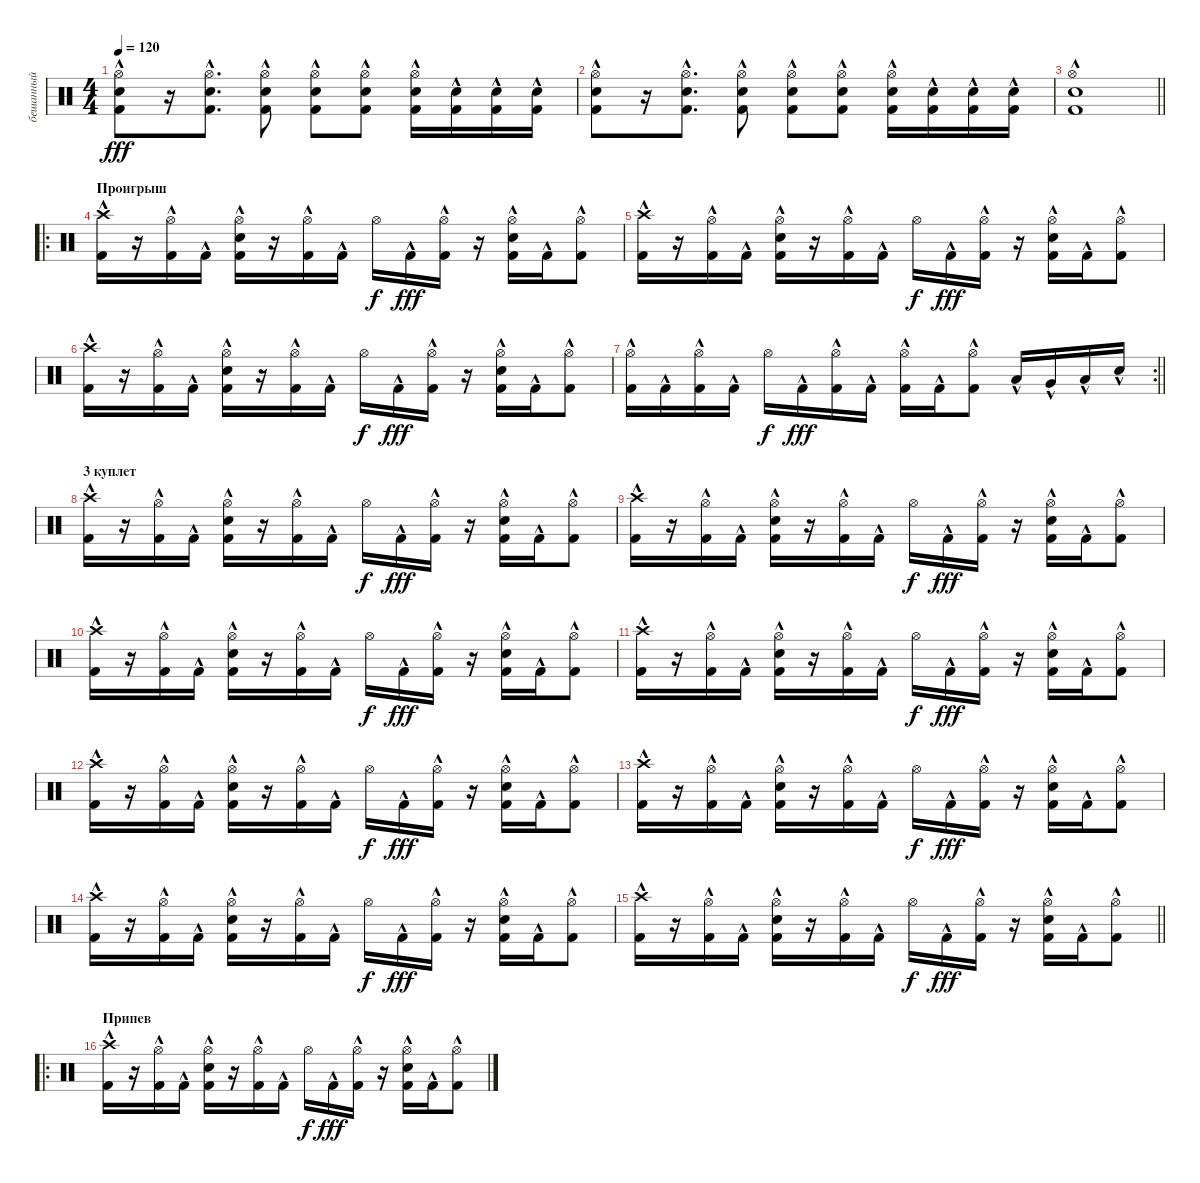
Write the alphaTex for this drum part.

\track ("бешанный" "бешанный") {instrument percussion}
\staff {score}
\articulation defaults
\ts (4 4)
\tempo 120
\clef neutral
\ks c
("Kick (hit) 2"{hac} "Snare (hit) 2"{hac} "Hi-Hat (open)").8{dy fff} r.16 ("Kick (hit) 2"{hac} "Snare (hit) 2"{hac} "Hi-Hat (open)").8{d} ("Kick (hit) 2"{hac} "Snare (hit) 2"{hac} "Hi-Hat (open)").8 ("Kick (hit) 2"{hac} "Snare (hit) 2"{hac} "Hi-Hat (open)").8 ("Kick (hit) 2"{hac} "Snare (hit) 2"{hac} "Hi-Hat (open)").8 ("Kick (hit) 2"{hac} "Snare (hit) 2"{hac} "Hi-Hat (open)").16 ("Kick (hit) 2"{hac} "Snare (hit) 2"{hac}).16 ("Kick (hit) 2"{hac} "Snare (hit) 2"{hac}).16 ("Kick (hit) 2"{hac} "Snare (hit) 2"{hac}).16 |
("Kick (hit) 2"{hac} "Snare (hit) 2"{hac} "Hi-Hat (open)").8 r.16 ("Kick (hit) 2"{hac} "Snare (hit) 2"{hac} "Hi-Hat (open)").8{d} ("Kick (hit) 2"{hac} "Snare (hit) 2"{hac} "Hi-Hat (open)").8 ("Kick (hit) 2"{hac} "Snare (hit) 2"{hac} "Hi-Hat (open)").8 ("Kick (hit) 2"{hac} "Snare (hit) 2"{hac} "Hi-Hat (open)").8 ("Kick (hit) 2"{hac} "Snare (hit) 2"{hac} "Hi-Hat (open)").16 ("Kick (hit) 2"{hac} "Snare (hit) 2"{hac}).16 ("Kick (hit) 2"{hac} "Snare (hit) 2"{hac}).16 ("Kick (hit) 2"{hac} "Snare (hit) 2"{hac}).16 |
\barLineRight lightlight
("Kick (hit) 2"{hac} "Snare (hit) 2"{hac} "Hi-Hat (open)"{hac}).1 |
\ro
\section ("" "Проигрыш")
("Kick (hit) 2"{hac} "Crash high (hit)").16 r.16 ("Kick (hit) 2"{hac} "Hi-Hat (open)").16 "Kick (hit) 2"{hac}.16 ("Kick (hit) 2"{hac} "Snare (hit) 2"{hac} "Hi-Hat (open)").16 r.16 ("Kick (hit) 2"{hac} "Hi-Hat (open)").16 "Kick (hit) 2"{hac}.16 "Hi-Hat (open)".16{dy f} "Kick (hit) 2"{hac}.16{dy fff} ("Kick (hit) 2"{hac} "Hi-Hat (open)").16 r.16 ("Kick (hit) 2"{hac} "Snare (hit) 2"{hac} "Hi-Hat (open)").16 "Kick (hit) 2"{hac}.16 ("Kick (hit) 2"{hac} "Hi-Hat (open)").8 |
("Kick (hit) 2"{hac} "Crash high (hit)"{hac}).16 r.16 ("Kick (hit) 2"{hac} "Hi-Hat (open)").16 "Kick (hit) 2"{hac}.16 ("Kick (hit) 2"{hac} "Snare (hit) 2"{hac} "Hi-Hat (open)").16 r.16 ("Kick (hit) 2"{hac} "Hi-Hat (open)").16 "Kick (hit) 2"{hac}.16 "Hi-Hat (open)".16{dy f} "Kick (hit) 2"{hac}.16{dy fff} ("Kick (hit) 2"{hac} "Hi-Hat (open)").16 r.16 ("Kick (hit) 2"{hac} "Snare (hit) 2"{hac} "Hi-Hat (open)").16 "Kick (hit) 2"{hac}.16 ("Kick (hit) 2"{hac} "Hi-Hat (open)").8 |
("Kick (hit) 2"{hac} "Crash high (hit)"{hac}).16 r.16 ("Kick (hit) 2"{hac} "Hi-Hat (open)").16 "Kick (hit) 2"{hac}.16 ("Kick (hit) 2"{hac} "Snare (hit) 2"{hac} "Hi-Hat (open)").16 r.16 ("Kick (hit) 2"{hac} "Hi-Hat (open)").16 "Kick (hit) 2"{hac}.16 "Hi-Hat (open)".16{dy f} "Kick (hit) 2"{hac}.16{dy fff} ("Kick (hit) 2"{hac} "Hi-Hat (open)").16 r.16 ("Kick (hit) 2"{hac} "Snare (hit) 2"{hac} "Hi-Hat (open)").16 "Kick (hit) 2"{hac}.16 ("Kick (hit) 2"{hac} "Hi-Hat (open)").8 |
\rc 2
\barLineRight lightlight
("Kick (hit) 2"{hac} "Hi-Hat (open)").16 "Kick (hit) 2"{hac}.16 ("Kick (hit) 2"{hac} "Hi-Hat (open)").16 "Kick (hit) 2"{hac}.16 "Hi-Hat (open)".16{dy f} "Kick (hit) 2"{hac}.16{dy fff} ("Kick (hit) 2"{hac} "Hi-Hat (open)").16 "Kick (hit) 2"{hac}.16 ("Kick (hit) 2"{hac} "Hi-Hat (open)").16 "Kick (hit) 2"{hac}.16 ("Kick (hit) 2"{hac} "Hi-Hat (open)").8 "Low Tom (hit)"{hac}.16 "Very Low Tom (hit)"{hac}.16 "Low Floor Tom (hit)"{hac}.16 "Snare (hit) 2"{hac}.16 |
\section ("" "3 куплет")
("Kick (hit) 2"{hac} "Crash high (hit)"{hac}).16 r.16 ("Kick (hit) 2"{hac} "Hi-Hat (open)").16 "Kick (hit) 2"{hac}.16 ("Kick (hit) 2"{hac} "Snare (hit) 2"{hac} "Hi-Hat (open)").16 r.16 ("Kick (hit) 2"{hac} "Hi-Hat (open)").16 "Kick (hit) 2"{hac}.16 "Hi-Hat (open)".16{dy f} "Kick (hit) 2"{hac}.16{dy fff} ("Kick (hit) 2"{hac} "Hi-Hat (open)").16 r.16 ("Kick (hit) 2"{hac} "Snare (hit) 2"{hac} "Hi-Hat (open)").16 "Kick (hit) 2"{hac}.16 ("Kick (hit) 2"{hac} "Hi-Hat (open)").8 |
("Kick (hit) 2"{hac} "Crash high (hit)"{hac}).16 r.16 ("Kick (hit) 2"{hac} "Hi-Hat (open)").16 "Kick (hit) 2"{hac}.16 ("Kick (hit) 2"{hac} "Snare (hit) 2"{hac} "Hi-Hat (open)").16 r.16 ("Kick (hit) 2"{hac} "Hi-Hat (open)").16 "Kick (hit) 2"{hac}.16 "Hi-Hat (open)".16{dy f} "Kick (hit) 2"{hac}.16{dy fff} ("Kick (hit) 2"{hac} "Hi-Hat (open)").16 r.16 ("Kick (hit) 2"{hac} "Snare (hit) 2"{hac} "Hi-Hat (open)").16 "Kick (hit) 2"{hac}.16 ("Kick (hit) 2"{hac} "Hi-Hat (open)").8 |
("Kick (hit) 2"{hac} "Crash high (hit)"{hac}).16 r.16 ("Kick (hit) 2"{hac} "Hi-Hat (open)").16 "Kick (hit) 2"{hac}.16 ("Kick (hit) 2"{hac} "Snare (hit) 2"{hac} "Hi-Hat (open)").16 r.16 ("Kick (hit) 2"{hac} "Hi-Hat (open)").16 "Kick (hit) 2"{hac}.16 "Hi-Hat (open)".16{dy f} "Kick (hit) 2"{hac}.16{dy fff} ("Kick (hit) 2"{hac} "Hi-Hat (open)").16 r.16 ("Kick (hit) 2"{hac} "Snare (hit) 2"{hac} "Hi-Hat (open)").16 "Kick (hit) 2"{hac}.16 ("Kick (hit) 2"{hac} "Hi-Hat (open)").8 |
("Kick (hit) 2"{hac} "Crash high (hit)"{hac}).16 r.16 ("Kick (hit) 2"{hac} "Hi-Hat (open)").16 "Kick (hit) 2"{hac}.16 ("Kick (hit) 2"{hac} "Snare (hit) 2"{hac} "Hi-Hat (open)").16 r.16 ("Kick (hit) 2"{hac} "Hi-Hat (open)").16 "Kick (hit) 2"{hac}.16 "Hi-Hat (open)".16{dy f} "Kick (hit) 2"{hac}.16{dy fff} ("Kick (hit) 2"{hac} "Hi-Hat (open)").16 r.16 ("Kick (hit) 2"{hac} "Snare (hit) 2"{hac} "Hi-Hat (open)").16 "Kick (hit) 2"{hac}.16 ("Kick (hit) 2"{hac} "Hi-Hat (open)").8 |
("Kick (hit) 2"{hac} "Crash high (hit)"{hac}).16 r.16 ("Kick (hit) 2"{hac} "Hi-Hat (open)").16 "Kick (hit) 2"{hac}.16 ("Kick (hit) 2"{hac} "Snare (hit) 2"{hac} "Hi-Hat (open)").16 r.16 ("Kick (hit) 2"{hac} "Hi-Hat (open)").16 "Kick (hit) 2"{hac}.16 "Hi-Hat (open)".16{dy f} "Kick (hit) 2"{hac}.16{dy fff} ("Kick (hit) 2"{hac} "Hi-Hat (open)").16 r.16 ("Kick (hit) 2"{hac} "Snare (hit) 2"{hac} "Hi-Hat (open)").16 "Kick (hit) 2"{hac}.16 ("Kick (hit) 2"{hac} "Hi-Hat (open)").8 |
("Kick (hit) 2"{hac} "Crash high (hit)"{hac}).16 r.16 ("Kick (hit) 2"{hac} "Hi-Hat (open)").16 "Kick (hit) 2"{hac}.16 ("Kick (hit) 2"{hac} "Snare (hit) 2"{hac} "Hi-Hat (open)").16 r.16 ("Kick (hit) 2"{hac} "Hi-Hat (open)").16 "Kick (hit) 2"{hac}.16 "Hi-Hat (open)".16{dy f} "Kick (hit) 2"{hac}.16{dy fff} ("Kick (hit) 2"{hac} "Hi-Hat (open)").16 r.16 ("Kick (hit) 2"{hac} "Snare (hit) 2"{hac} "Hi-Hat (open)").16 "Kick (hit) 2"{hac}.16 ("Kick (hit) 2"{hac} "Hi-Hat (open)").8 |
("Kick (hit) 2"{hac} "Crash high (hit)"{hac}).16 r.16 ("Kick (hit) 2"{hac} "Hi-Hat (open)").16 "Kick (hit) 2"{hac}.16 ("Kick (hit) 2"{hac} "Snare (hit) 2"{hac} "Hi-Hat (open)").16 r.16 ("Kick (hit) 2"{hac} "Hi-Hat (open)").16 "Kick (hit) 2"{hac}.16 "Hi-Hat (open)".16{dy f} "Kick (hit) 2"{hac}.16{dy fff} ("Kick (hit) 2"{hac} "Hi-Hat (open)").16 r.16 ("Kick (hit) 2"{hac} "Snare (hit) 2"{hac} "Hi-Hat (open)").16 "Kick (hit) 2"{hac}.16 ("Kick (hit) 2"{hac} "Hi-Hat (open)").8 |
\barLineRight lightlight
("Kick (hit) 2"{hac} "Crash high (hit)"{hac}).16 r.16 ("Kick (hit) 2"{hac} "Hi-Hat (open)").16 "Kick (hit) 2"{hac}.16 ("Kick (hit) 2"{hac} "Snare (hit) 2"{hac} "Hi-Hat (open)").16 r.16 ("Kick (hit) 2"{hac} "Hi-Hat (open)").16 "Kick (hit) 2"{hac}.16 "Hi-Hat (open)".16{dy f} "Kick (hit) 2"{hac}.16{dy fff} ("Kick (hit) 2"{hac} "Hi-Hat (open)").16 r.16 ("Kick (hit) 2"{hac} "Snare (hit) 2"{hac} "Hi-Hat (open)").16 "Kick (hit) 2"{hac}.16 ("Kick (hit) 2"{hac} "Hi-Hat (open)").8 |
\ro
\section ("" "Припев")
("Kick (hit) 2"{hac} "Crash high (hit)"{hac}).16 r.16 ("Kick (hit) 2"{hac} "Hi-Hat (open)").16 "Kick (hit) 2"{hac}.16 ("Kick (hit) 2"{hac} "Snare (hit) 2"{hac} "Hi-Hat (open)").16 r.16 ("Kick (hit) 2"{hac} "Hi-Hat (open)").16 "Kick (hit) 2"{hac}.16 "Hi-Hat (open)".16{dy f} "Kick (hit) 2"{hac}.16{dy fff} ("Kick (hit) 2"{hac} "Hi-Hat (open)").16 r.16 ("Kick (hit) 2"{hac} "Snare (hit) 2"{hac} "Hi-Hat (open)").16 "Kick (hit) 2"{hac}.16 ("Kick (hit) 2"{hac} "Hi-Hat (open)").8
